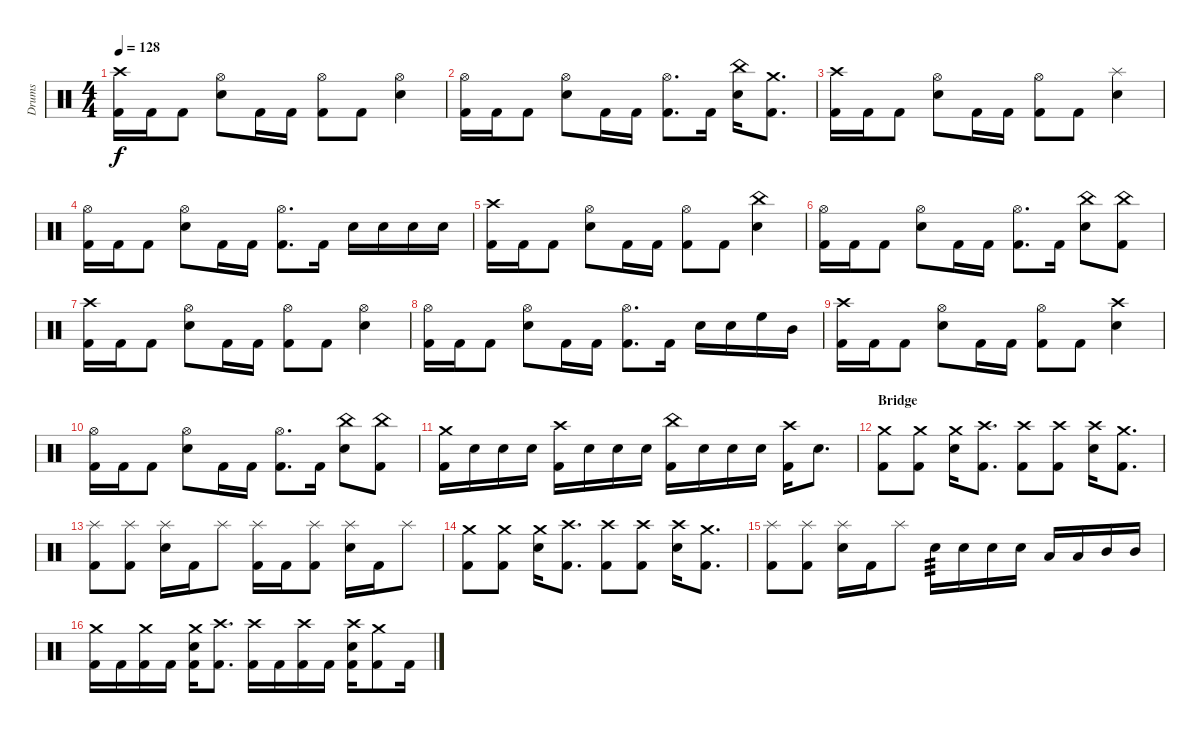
\track ("Drums" "Drums") {instrument percussion}
\staff {score}
\articulation defaults
\ts (4 4)
\tempo 128
\clef neutral
\ks c
("Crash high (hit)" "Kick (hit) 2").16{dy f} "Kick (hit) 2".16 "Kick (hit) 2".8 ("Hi-Hat (open)" "Snare (hit) 2").8 "Kick (hit) 2".16 "Kick (hit) 2".16 ("Hi-Hat (open)" "Kick (hit) 2").8 "Kick (hit) 2".8 ("Hi-Hat (open)" "Snare (hit) 2").4 |
("Hi-Hat (open)" "Kick (hit) 2").16 "Kick (hit) 2".16 "Kick (hit) 2".8 ("Hi-Hat (open)" "Snare (hit) 2").8 "Kick (hit) 2".16 "Kick (hit) 2".16 ("Hi-Hat (open)" "Kick (hit) 2").8{d} "Kick (hit) 2".16 ("China (hit)" "Snare (hit) 2").16 ("Crash medium (hit)" "Kick (hit) 2").8{d} |
("Crash high (hit)" "Kick (hit) 2").16 "Kick (hit) 2".16 "Kick (hit) 2".8 ("Hi-Hat (open)" "Snare (hit) 2").8 "Kick (hit) 2".16 "Kick (hit) 2".16 ("Hi-Hat (open)" "Kick (hit) 2").8 "Kick (hit) 2".8 ("Splash (hit)" "Snare (hit) 2").4 |
("Hi-Hat (open)" "Kick (hit) 2").16 "Kick (hit) 2".16 "Kick (hit) 2".8 ("Hi-Hat (open)" "Snare (hit) 2").8 "Kick (hit) 2".16 "Kick (hit) 2".16 ("Hi-Hat (open)" "Kick (hit) 2").8{d} "Kick (hit) 2".16 "Snare (hit) 2".16 "Snare (hit) 2".16 "Snare (hit) 2".16 "Snare (hit) 2".16 |
("Crash high (hit)" "Kick (hit) 2").16 "Kick (hit) 2".16 "Kick (hit) 2".8 ("Hi-Hat (open)" "Snare (hit) 2").8 "Kick (hit) 2".16 "Kick (hit) 2".16 ("Hi-Hat (open)" "Kick (hit) 2").8 "Kick (hit) 2".8 ("China (hit)" "Snare (hit) 2").4 |
("Hi-Hat (open)" "Kick (hit) 2").16 "Kick (hit) 2".16 "Kick (hit) 2".8 ("Hi-Hat (open)" "Snare (hit) 2").8 "Kick (hit) 2".16 "Kick (hit) 2".16 ("Hi-Hat (open)" "Kick (hit) 2").8{d} "Kick (hit) 2".16 ("China (hit)" "Snare (hit) 2").8 ("China (hit)" "Kick (hit) 2").8 |
("Crash high (hit)" "Kick (hit) 2").16 "Kick (hit) 2".16 "Kick (hit) 2".8 ("Hi-Hat (open)" "Snare (hit) 2").8 "Kick (hit) 2".16 "Kick (hit) 2".16 ("Hi-Hat (open)" "Kick (hit) 2").8 "Kick (hit) 2".8 ("Hi-Hat (open)" "Snare (hit) 2").4 |
("Hi-Hat (open)" "Kick (hit) 2").16 "Kick (hit) 2".16 "Kick (hit) 2".8 ("Hi-Hat (open)" "Snare (hit) 2").8 "Kick (hit) 2".16 "Kick (hit) 2".16 ("Hi-Hat (open)" "Kick (hit) 2").8{d} "Kick (hit) 2".16 "Snare (hit) 2".16 "Snare (hit) 2".16 "High Floor Tom (hit)".16 "Mid Tom (hit)".16 |
("Crash high (hit)" "Kick (hit) 2").16 "Kick (hit) 2".16 "Kick (hit) 2".8 ("Hi-Hat (open)" "Snare (hit) 2").8 "Kick (hit) 2".16 "Kick (hit) 2".16 ("Hi-Hat (open)" "Kick (hit) 2").8 "Kick (hit) 2".8 ("Crash high (hit)" "Snare (hit) 2").4 |
("Hi-Hat (open)" "Kick (hit) 2").16 "Kick (hit) 2".16 "Kick (hit) 2".8 ("Hi-Hat (open)" "Snare (hit) 2").8 "Kick (hit) 2".16 "Kick (hit) 2".16 ("Hi-Hat (open)" "Kick (hit) 2").8{d} "Kick (hit) 2".16 ("China (hit)" "Snare (hit) 2").8 ("China (hit)" "Kick (hit) 2").8 |
("Crash medium (hit)" "Kick (hit) 2").16 "Snare (hit) 2".16 "Snare (hit) 2".16 "Snare (hit) 2".16 ("Crash high (hit)" "Kick (hit) 2").16 "Snare (hit) 2".16 "Snare (hit) 2".16 "Snare (hit) 2".16 ("China (hit)" "Kick (hit) 2").16 "Snare (hit) 2".16 "Snare (hit) 2".16 "Snare (hit) 2".16 ("Crash high (hit)" "Kick (hit) 2").16 "Snare (hit) 2".8{d} |
\section ("" "Bridge")
("Crash medium (hit)" "Kick (hit) 2").8 ("Crash medium (hit)" "Kick (hit) 2").8 ("Crash medium (hit)" "Snare (hit) 2").16 ("Crash high (hit)" "Kick (hit) 2").8{d} ("Crash high (hit)" "Kick (hit) 2").8 ("Crash high (hit)" "Kick (hit) 2").8 ("Crash high (hit)" "Snare (hit) 2").16 ("Crash medium (hit)" "Kick (hit) 2").8{d} |
("Splash (hit)" "Kick (hit) 2").8 ("Splash (hit)" "Kick (hit) 2").8 ("Splash (hit)" "Snare (hit) 2").16 "Kick (hit) 2".16 "Splash (hit)".8 ("Splash (hit)" "Kick (hit) 2").16 "Kick (hit) 2".16 ("Splash (hit)" "Kick (hit) 2").8 ("Splash (hit)" "Snare (hit) 2").16 "Kick (hit) 2".16 "Splash (hit)".8 |
("Crash medium (hit)" "Kick (hit) 2").8 ("Crash medium (hit)" "Kick (hit) 2").8 ("Crash medium (hit)" "Snare (hit) 2").16 ("Crash high (hit)" "Kick (hit) 2").8{d} ("Crash high (hit)" "Kick (hit) 2").8 ("Crash high (hit)" "Kick (hit) 2").8 ("Crash high (hit)" "Snare (hit) 2").16 ("Crash medium (hit)" "Kick (hit) 2").8{d} |
("Splash (hit)" "Kick (hit) 2").8 ("Splash (hit)" "Kick (hit) 2").8 ("Splash (hit)" "Snare (hit) 2").16 "Kick (hit) 2".16 "Splash (hit)".8 "Snare (hit) 2".16{tp 3} "Snare (hit) 2".16 "Snare (hit) 2".16 "Snare (hit) 2".16 "Low Tom (hit)".16 "Low Tom (hit)".16 "Mid Tom (hit)".16 "Mid Tom (hit)".16 |
("Crash medium (hit)" "Kick (hit) 2").16 "Kick (hit) 2".16 ("Crash medium (hit)" "Kick (hit) 2").16 "Kick (hit) 2".16 ("Crash medium (hit)" "Snare (hit) 2" "Kick (hit) 2").16 ("Crash high (hit)" "Kick (hit) 2").8{d} ("Crash high (hit)" "Kick (hit) 2").16 "Kick (hit) 2".16 ("Crash high (hit)" "Kick (hit) 2").16 "Kick (hit) 2".16 ("Crash high (hit)" "Snare (hit) 2" "Kick (hit) 2").16 ("Crash medium (hit)" "Kick (hit) 2").8 "Kick (hit) 2".16
